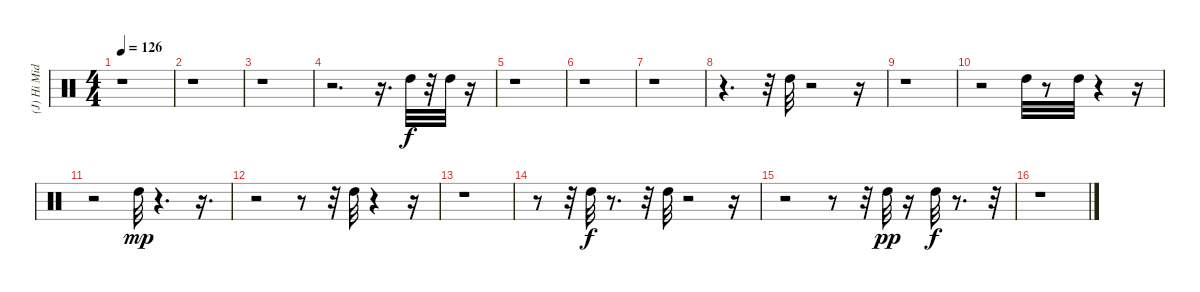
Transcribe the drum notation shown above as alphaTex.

\track ("(J) Hi Mid Tom" "(J) Hi Mid") {instrument percussion}
\staff {score}
\articulation defaults
\ts (4 4)
\tempo 126
\clef neutral
\ks c
r.1{dy mp} |
r.1 |
r.1 |
r.2{d} r.16{d} "High Tom (hit)".32{dy f} r.32 "High Tom (hit)".32 r.16 |
r.1 |
r.1 |
r.1 |
r.4{d} r.32 "High Tom (hit)".32 r.2 r.16 |
r.1 |
r.2 "High Tom (hit)".32 r.8 "High Tom (hit)".32 r.4 r.16 |
r.2 "High Tom (hit)".32{dy mp} r.4{d} r.16{d} |
r.2 r.8 r.32 "High Tom (hit)".32 r.4 r.16 |
r.1 |
r.8 r.32 "High Tom (hit)".32{dy f} r.8{d} r.32 "High Tom (hit)".32 r.2 r.16 |
r.2 r.8 r.32 "High Tom (hit)".32{dy pp} r.16 "High Tom (hit)".32{dy f} r.8{d} r.32 |
r.1
